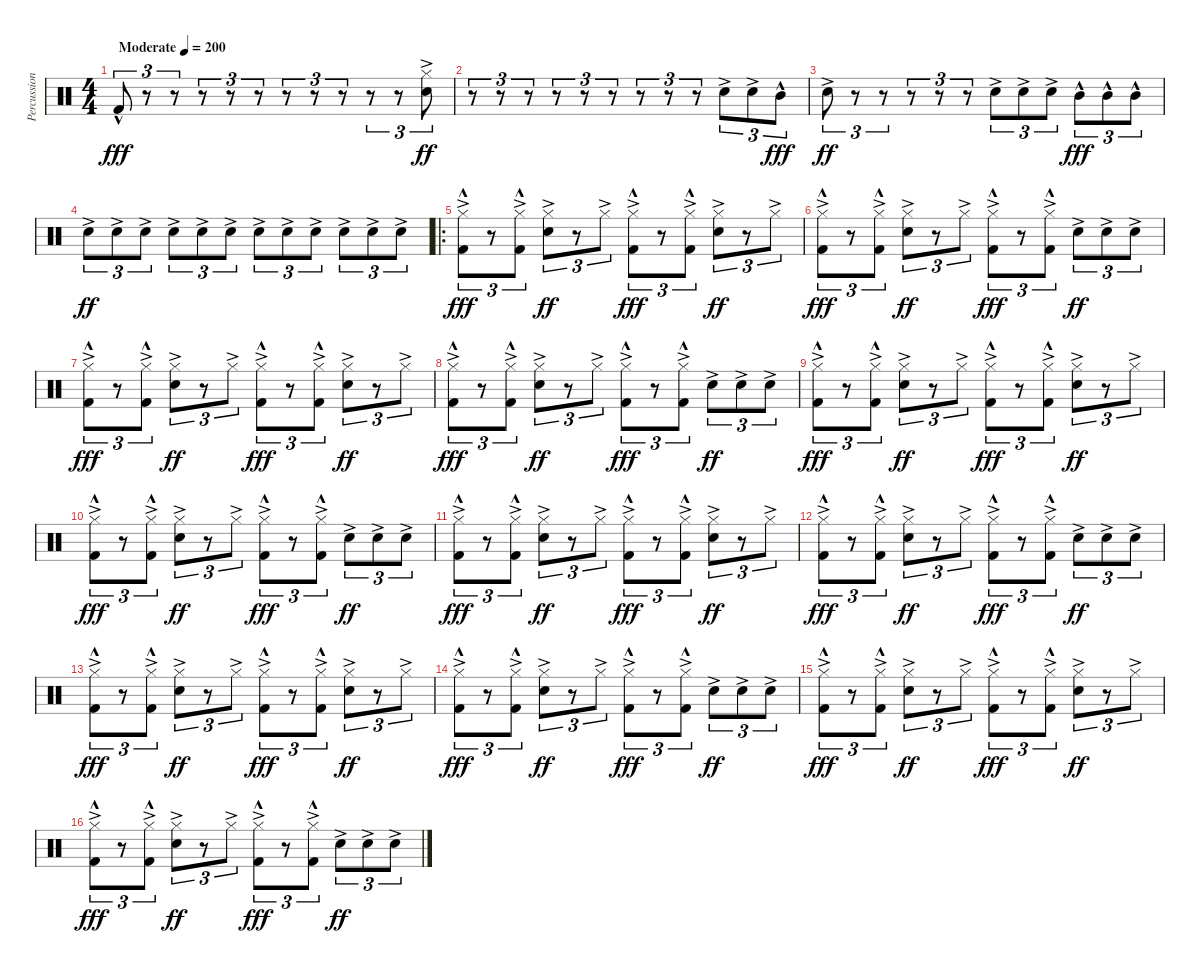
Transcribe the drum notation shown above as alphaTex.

\track ("Percussion" "Percussion") {instrument percussion}
\staff {score}
\articulation defaults
\ts (4 4)
\tempo (200 "Moderate")
\clef neutral
\ks c "Kick (hit) 2"{hac}.8{tu (3 2) dy fff}
r.8{tu (3 2)} r.8{tu (3 2)} r.8{tu (3 2)} r.8{tu (3 2)} r.8{tu (3 2)} r.8{tu (3 2)} r.8{tu (3 2)} r.8{tu (3 2)} r.8{tu (3 2)} r.8{tu (3 2)} ("Hi-Hat (closed)"{ac} "Snare (hit) 2"{ac}).8{tu (3 2) dy ff} |
r.8{tu (3 2)} r.8{tu (3 2)} r.8{tu (3 2)} r.8{tu (3 2)} r.8{tu (3 2)} r.8{tu (3 2)} r.8{tu (3 2)} r.8{tu (3 2)} r.8{tu (3 2)} "Snare (hit) 2"{ac}.8{tu (3 2)} "Snare (hit) 2"{ac}.8{tu (3 2)} "Mid Tom (hit)"{hac}.8{tu (3 2) dy fff} |
"Snare (hit) 2"{ac}.8{tu (3 2) dy ff} r.8{tu (3 2)} r.8{tu (3 2)} r.8{tu (3 2)} r.8{tu (3 2)} r.8{tu (3 2)} "Snare (hit) 2"{ac}.8{tu (3 2)} "Snare (hit) 2"{ac}.8{tu (3 2)} "Snare (hit) 2"{ac}.8{tu (3 2)} "Mid Tom (hit)"{hac}.8{tu (3 2) dy fff} "Mid Tom (hit)"{hac}.8{tu (3 2)} "Mid Tom (hit)"{hac}.8{tu (3 2)} |
"Snare (hit) 2"{ac}.8{tu (3 2) dy ff} "Snare (hit) 2"{ac}.8{tu (3 2)} "Snare (hit) 2"{ac}.8{tu (3 2)} "Snare (hit) 2"{ac}.8{tu (3 2)} "Snare (hit) 2"{ac}.8{tu (3 2)} "Snare (hit) 2"{ac}.8{tu (3 2)} "Snare (hit) 2"{ac}.8{tu (3 2)} "Snare (hit) 2"{ac}.8{tu (3 2)} "Snare (hit) 2"{ac}.8{tu (3 2)} "Snare (hit) 2"{ac}.8{tu (3 2)} "Snare (hit) 2"{ac}.8{tu (3 2)} "Snare (hit) 2"{ac}.8{tu (3 2)} |
\ro
("Hi-Hat (closed)"{ac} "Kick (hit) 2"{hac}).8{tu (3 2) dy fff} r.8{tu (3 2)} ("Hi-Hat (closed)"{ac} "Kick (hit) 2"{hac}).8{tu (3 2)} ("Hi-Hat (closed)"{ac} "Snare (hit) 2"{ac}).8{tu (3 2) dy ff} r.8{tu (3 2)} "Hi-Hat (closed)"{ac}.8{tu (3 2)} ("Hi-Hat (closed)"{ac} "Kick (hit) 2"{hac}).8{tu (3 2) dy fff} r.8{tu (3 2)} ("Hi-Hat (closed)"{ac} "Kick (hit) 2"{hac}).8{tu (3 2)} ("Hi-Hat (closed)"{ac} "Snare (hit) 2"{ac}).8{tu (3 2) dy ff} r.8{tu (3 2)} "Hi-Hat (closed)"{ac}.8{tu (3 2)} |
("Hi-Hat (closed)"{ac} "Kick (hit) 2"{hac}).8{tu (3 2) dy fff} r.8{tu (3 2)} ("Hi-Hat (closed)"{ac} "Kick (hit) 2"{hac}).8{tu (3 2)} ("Hi-Hat (closed)"{ac} "Snare (hit) 2"{ac}).8{tu (3 2) dy ff} r.8{tu (3 2)} "Hi-Hat (closed)"{ac}.8{tu (3 2)} ("Hi-Hat (closed)"{ac} "Kick (hit) 2"{hac}).8{tu (3 2) dy fff} r.8{tu (3 2)} ("Hi-Hat (closed)"{ac} "Kick (hit) 2"{hac}).8{tu (3 2)} "Snare (hit) 2"{ac}.8{tu (3 2) dy ff} "Snare (hit) 2"{ac}.8{tu (3 2)} "Snare (hit) 2"{ac}.8{tu (3 2)} |
("Hi-Hat (closed)"{ac} "Kick (hit) 2"{hac}).8{tu (3 2) dy fff} r.8{tu (3 2)} ("Hi-Hat (closed)"{ac} "Kick (hit) 2"{hac}).8{tu (3 2)} ("Hi-Hat (closed)"{ac} "Snare (hit) 2"{ac}).8{tu (3 2) dy ff} r.8{tu (3 2)} "Hi-Hat (closed)"{ac}.8{tu (3 2)} ("Hi-Hat (closed)"{ac} "Kick (hit) 2"{hac}).8{tu (3 2) dy fff} r.8{tu (3 2)} ("Hi-Hat (closed)"{ac} "Kick (hit) 2"{hac}).8{tu (3 2)} ("Hi-Hat (closed)"{ac} "Snare (hit) 2"{ac}).8{tu (3 2) dy ff} r.8{tu (3 2)} "Hi-Hat (closed)"{ac}.8{tu (3 2)} |
("Hi-Hat (closed)"{ac} "Kick (hit) 2"{hac}).8{tu (3 2) dy fff} r.8{tu (3 2)} ("Hi-Hat (closed)"{ac} "Kick (hit) 2"{hac}).8{tu (3 2)} ("Hi-Hat (closed)"{ac} "Snare (hit) 2"{ac}).8{tu (3 2) dy ff} r.8{tu (3 2)} "Hi-Hat (closed)"{ac}.8{tu (3 2)} ("Hi-Hat (closed)"{ac} "Kick (hit) 2"{hac}).8{tu (3 2) dy fff} r.8{tu (3 2)} ("Hi-Hat (closed)"{ac} "Kick (hit) 2"{hac}).8{tu (3 2)} "Snare (hit) 2"{ac}.8{tu (3 2) dy ff} "Snare (hit) 2"{ac}.8{tu (3 2)} "Snare (hit) 2"{ac}.8{tu (3 2)} |
("Hi-Hat (closed)"{ac} "Kick (hit) 2"{hac}).8{tu (3 2) dy fff} r.8{tu (3 2)} ("Hi-Hat (closed)"{ac} "Kick (hit) 2"{hac}).8{tu (3 2)} ("Hi-Hat (closed)"{ac} "Snare (hit) 2"{ac}).8{tu (3 2) dy ff} r.8{tu (3 2)} "Hi-Hat (closed)"{ac}.8{tu (3 2)} ("Hi-Hat (closed)"{ac} "Kick (hit) 2"{hac}).8{tu (3 2) dy fff} r.8{tu (3 2)} ("Hi-Hat (closed)"{ac} "Kick (hit) 2"{hac}).8{tu (3 2)} ("Hi-Hat (closed)"{ac} "Snare (hit) 2"{ac}).8{tu (3 2) dy ff} r.8{tu (3 2)} "Hi-Hat (closed)"{ac}.8{tu (3 2)} |
("Hi-Hat (closed)"{ac} "Kick (hit) 2"{hac}).8{tu (3 2) dy fff} r.8{tu (3 2)} ("Hi-Hat (closed)"{ac} "Kick (hit) 2"{hac}).8{tu (3 2)} ("Hi-Hat (closed)"{ac} "Snare (hit) 2"{ac}).8{tu (3 2) dy ff} r.8{tu (3 2)} "Hi-Hat (closed)"{ac}.8{tu (3 2)} ("Hi-Hat (closed)"{ac} "Kick (hit) 2"{hac}).8{tu (3 2) dy fff} r.8{tu (3 2)} ("Hi-Hat (closed)"{ac} "Kick (hit) 2"{hac}).8{tu (3 2)} "Snare (hit) 2"{ac}.8{tu (3 2) dy ff} "Snare (hit) 2"{ac}.8{tu (3 2)} "Snare (hit) 2"{ac}.8{tu (3 2)} |
("Hi-Hat (closed)"{ac} "Kick (hit) 2"{hac}).8{tu (3 2) dy fff} r.8{tu (3 2)} ("Hi-Hat (closed)"{ac} "Kick (hit) 2"{hac}).8{tu (3 2)} ("Hi-Hat (closed)"{ac} "Snare (hit) 2"{ac}).8{tu (3 2) dy ff} r.8{tu (3 2)} "Hi-Hat (closed)"{ac}.8{tu (3 2)} ("Hi-Hat (closed)"{ac} "Kick (hit) 2"{hac}).8{tu (3 2) dy fff} r.8{tu (3 2)} ("Hi-Hat (closed)"{ac} "Kick (hit) 2"{hac}).8{tu (3 2)} ("Hi-Hat (closed)"{ac} "Snare (hit) 2"{ac}).8{tu (3 2) dy ff} r.8{tu (3 2)} "Hi-Hat (closed)"{ac}.8{tu (3 2)} |
("Hi-Hat (closed)"{ac} "Kick (hit) 2"{hac}).8{tu (3 2) dy fff} r.8{tu (3 2)} ("Hi-Hat (closed)"{ac} "Kick (hit) 2"{hac}).8{tu (3 2)} ("Hi-Hat (closed)"{ac} "Snare (hit) 2"{ac}).8{tu (3 2) dy ff} r.8{tu (3 2)} "Hi-Hat (closed)"{ac}.8{tu (3 2)} ("Hi-Hat (closed)"{ac} "Kick (hit) 2"{hac}).8{tu (3 2) dy fff} r.8{tu (3 2)} ("Hi-Hat (closed)"{ac} "Kick (hit) 2"{hac}).8{tu (3 2)} "Snare (hit) 2"{ac}.8{tu (3 2) dy ff} "Snare (hit) 2"{ac}.8{tu (3 2)} "Snare (hit) 2"{ac}.8{tu (3 2)} |
("Hi-Hat (closed)"{ac} "Kick (hit) 2"{hac}).8{tu (3 2) dy fff} r.8{tu (3 2)} ("Hi-Hat (closed)"{ac} "Kick (hit) 2"{hac}).8{tu (3 2)} ("Hi-Hat (closed)"{ac} "Snare (hit) 2"{ac}).8{tu (3 2) dy ff} r.8{tu (3 2)} "Hi-Hat (closed)"{ac}.8{tu (3 2)} ("Hi-Hat (closed)"{ac} "Kick (hit) 2"{hac}).8{tu (3 2) dy fff} r.8{tu (3 2)} ("Hi-Hat (closed)"{ac} "Kick (hit) 2"{hac}).8{tu (3 2)} ("Hi-Hat (closed)"{ac} "Snare (hit) 2"{ac}).8{tu (3 2) dy ff} r.8{tu (3 2)} "Hi-Hat (closed)"{ac}.8{tu (3 2)} |
("Hi-Hat (closed)"{ac} "Kick (hit) 2"{hac}).8{tu (3 2) dy fff} r.8{tu (3 2)} ("Hi-Hat (closed)"{ac} "Kick (hit) 2"{hac}).8{tu (3 2)} ("Hi-Hat (closed)"{ac} "Snare (hit) 2"{ac}).8{tu (3 2) dy ff} r.8{tu (3 2)} "Hi-Hat (closed)"{ac}.8{tu (3 2)} ("Hi-Hat (closed)"{ac} "Kick (hit) 2"{hac}).8{tu (3 2) dy fff} r.8{tu (3 2)} ("Hi-Hat (closed)"{ac} "Kick (hit) 2"{hac}).8{tu (3 2)} "Snare (hit) 2"{ac}.8{tu (3 2) dy ff} "Snare (hit) 2"{ac}.8{tu (3 2)} "Snare (hit) 2"{ac}.8{tu (3 2)} |
("Hi-Hat (closed)"{ac} "Kick (hit) 2"{hac}).8{tu (3 2) dy fff} r.8{tu (3 2)} ("Hi-Hat (closed)"{ac} "Kick (hit) 2"{hac}).8{tu (3 2)} ("Hi-Hat (closed)"{ac} "Snare (hit) 2"{ac}).8{tu (3 2) dy ff} r.8{tu (3 2)} "Hi-Hat (closed)"{ac}.8{tu (3 2)} ("Hi-Hat (closed)"{ac} "Kick (hit) 2"{hac}).8{tu (3 2) dy fff} r.8{tu (3 2)} ("Hi-Hat (closed)"{ac} "Kick (hit) 2"{hac}).8{tu (3 2)} ("Hi-Hat (closed)"{ac} "Snare (hit) 2"{ac}).8{tu (3 2) dy ff} r.8{tu (3 2)} "Hi-Hat (closed)"{ac}.8{tu (3 2)} |
("Hi-Hat (closed)"{ac} "Kick (hit) 2"{hac}).8{tu (3 2) dy fff} r.8{tu (3 2)} ("Hi-Hat (closed)"{ac} "Kick (hit) 2"{hac}).8{tu (3 2)} ("Hi-Hat (closed)"{ac} "Snare (hit) 2"{ac}).8{tu (3 2) dy ff} r.8{tu (3 2)} "Hi-Hat (closed)"{ac}.8{tu (3 2)} ("Hi-Hat (closed)"{ac} "Kick (hit) 2"{hac}).8{tu (3 2) dy fff} r.8{tu (3 2)} ("Hi-Hat (closed)"{ac} "Kick (hit) 2"{hac}).8{tu (3 2)} "Snare (hit) 2"{ac}.8{tu (3 2) dy ff} "Snare (hit) 2"{ac}.8{tu (3 2)} "Snare (hit) 2"{ac}.8{tu (3 2)}
